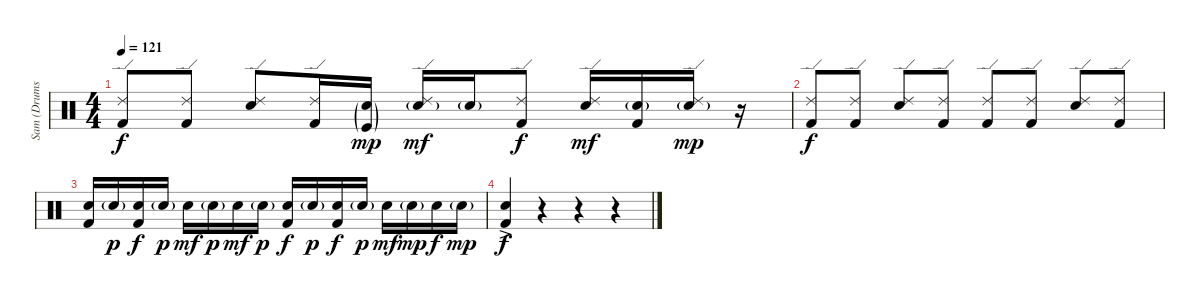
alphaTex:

\track ("Sam (Drums)" "Sam (Drums") {instrument percussion}
\staff {score}
\articulation defaults
\ts (4 4)
\tempo 121
\clef neutral
\ks c
("Ride (edge) 2" "Kick (hit) 2").8{dy f} ("Ride (edge) 2" "Kick (hit) 2").8 ("Ride (edge) 2" "Snare (hit) 2").8 ("Ride (edge) 2" "Kick (hit) 2").16 ("Snare (hit) 2"{g} "Kick (hit)"{g}).16{dy mp} ("Ride (edge) 2" "Snare (hit) 2"{g}).16{dy mf} "Snare (hit) 2"{g}.16 ("Ride (edge) 2" "Kick (hit) 2").8{dy f} ("Ride (edge) 2" "Snare (hit) 2").16{dy mf} ("Snare (hit) 2"{g} "Kick (hit) 2").16 ("Ride (edge) 2" "Snare (hit) 2"{g}).16{dy mp} r.16 |
("Ride (edge) 2" "Kick (hit) 2").8{dy f} ("Ride (edge) 2" "Kick (hit) 2").8 ("Ride (edge) 2" "Snare (hit) 2").8 ("Ride (edge) 2" "Kick (hit) 2").8 ("Ride (edge) 2" "Kick (hit) 2").8 ("Ride (edge) 2" "Kick (hit) 2").8 ("Ride (edge) 2" "Snare (hit) 2").8 ("Ride (edge) 2" "Kick (hit) 2").8 |
("Snare (hit) 2" "Kick (hit) 2").16 "Snare (hit) 2"{g}.16{dy p} ("Snare (hit) 2" "Kick (hit) 2").16{dy f} "Snare (hit) 2"{g}.16{dy p} "Snare (hit) 2".16{dy mf} "Snare (hit) 2"{g}.16{dy p} "Snare (hit) 2".16{dy mf} "Snare (hit) 2"{g}.16{dy p} ("Snare (hit) 2" "Kick (hit) 2").16{dy f} "Snare (hit) 2"{g}.16{dy p} ("Snare (hit) 2" "Kick (hit) 2").16{dy f} "Snare (hit) 2"{g}.16{dy p} "Snare (hit) 2".16{dy mf} "Snare (hit) 2"{g}.16{dy mp} "Snare (hit) 2".16{dy f} "Snare (hit) 2"{g}.16{dy mp} |
("Snare (hit) 2"{ac} "Kick (hit) 2").4{dy f} r.4 r.4 r.4
